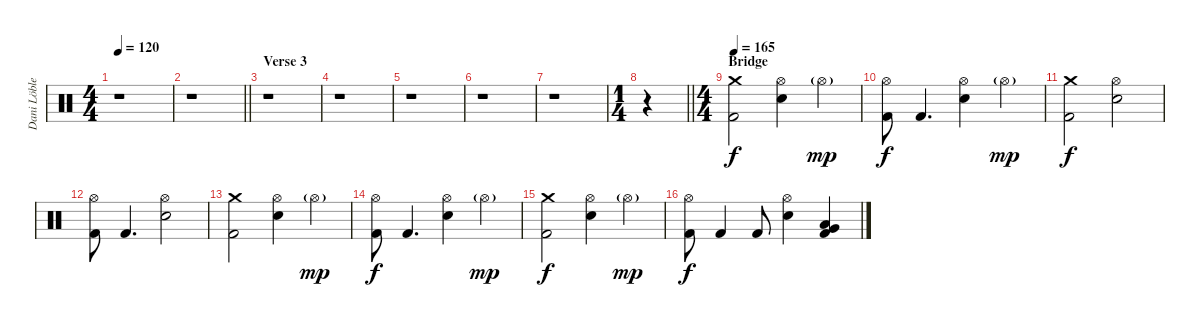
\track ("Dani Löble" "Dani Löble") {instrument percussion}
\staff {score}
\articulation defaults
\ts (4 4)
\tempo 120
\clef neutral
\ks c
r.1{dy f} |
\barLineRight lightlight
r.1 |
\section ("" "Verse 3")
r.1 |
r.1 |
r.1 |
r.1 |
r.1 |
\ts (1 4)
\barLineRight lightlight
r.4 |
\ts (4 4)
\section ("" "Bridge")
\tempo 165
("Crash medium (hit)" "Kick (hit) 2").2 ("Hi-Hat (open)" "Electric Snare (hit)").4 "Hi-Hat (open)"{g}.4{dy mp} |
("Hi-Hat (open)" "Kick (hit) 2").8{dy f} "Kick (hit) 2".4{d} ("Hi-Hat (open)" "Electric Snare (hit)").4 "Hi-Hat (open)"{g}.4{dy mp} |
("Crash medium (hit)" "Kick (hit) 2").2{dy f} ("Hi-Hat (open)" "Electric Snare (hit)").2 |
("Hi-Hat (open)" "Kick (hit) 2").8 "Kick (hit) 2".4{d} ("Hi-Hat (open)" "Electric Snare (hit)").2 |
("Crash medium (hit)" "Kick (hit) 2").2 ("Hi-Hat (open)" "Electric Snare (hit)").4 "Hi-Hat (open)"{g}.4{dy mp} |
("Hi-Hat (open)" "Kick (hit) 2").8{dy f} "Kick (hit) 2".4{d} ("Hi-Hat (open)" "Electric Snare (hit)").4 "Hi-Hat (open)"{g}.4{dy mp} |
("Crash medium (hit)" "Kick (hit) 2").2{dy f} ("Hi-Hat (open)" "Electric Snare (hit)").4 "Hi-Hat (open)"{g}.4{dy mp} |
("Hi-Hat (open)" "Kick (hit) 2").8{dy f} "Kick (hit) 2".4 "Kick (hit) 2".8 ("Hi-Hat (open)" "Electric Snare (hit)").4 ("Very Low Tom (hit)" "Low Floor Tom (hit)" "Kick (hit) 2").4
